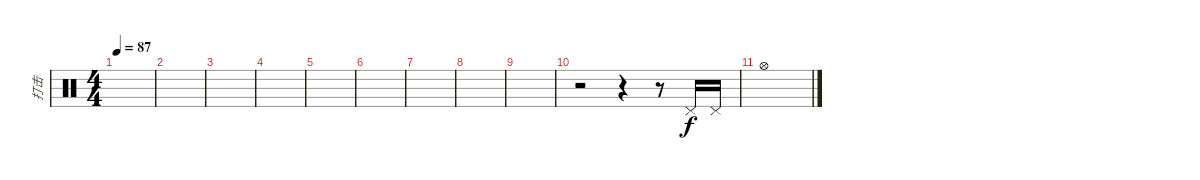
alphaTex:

\track ("打击" "打击") {instrument percussion}
\staff {score}
\articulation defaults
\ts (4 4)
\tempo 87
\clef neutral
\ks c
|
|
|
|
|
|
|
|
|
r.2 r.4 r.8 "Pedal Hi-Hat (hit)".16 "Pedal Hi-Hat (hit)".16 |
"Hi-Hat (open)".1
